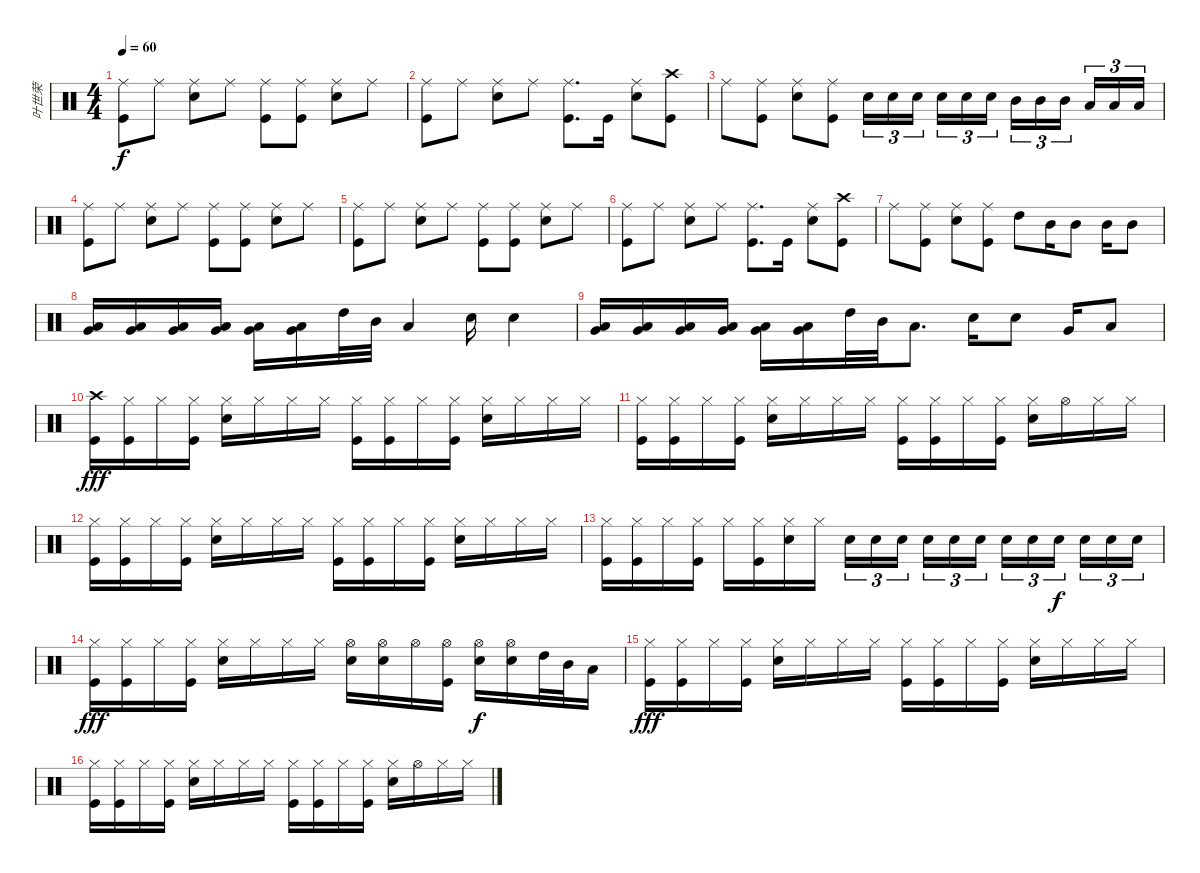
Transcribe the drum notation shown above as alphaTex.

\track ("叶世荣" "叶世荣") {instrument percussion}
\staff {score}
\articulation defaults
\ts (4 4)
\tempo 60
\clef neutral
\ks c
("Ride (middle)" "Kick (hit)").8{dy f} "Ride (middle)".8 ("Ride (middle)" "Snare (hit) 2").8 "Ride (middle)".8 ("Ride (middle)" "Kick (hit)").8 ("Ride (middle)" "Kick (hit)").8 ("Ride (middle)" "Snare (hit) 2").8 "Ride (middle)".8 |
("Ride (middle)" "Kick (hit)").8 "Ride (middle)".8 ("Ride (middle)" "Snare (hit) 2").8 "Ride (middle)".8 ("Ride (middle)" "Kick (hit)").8{d} "Kick (hit)".16 ("Ride (middle)" "Snare (hit) 2").8 ("Crash high (hit)" "Kick (hit)").8 |
"Ride (middle)".8 ("Ride (middle)" "Kick (hit)").8 ("Ride (middle)" "Snare (hit) 2").8 ("Ride (middle)" "Kick (hit)").8 "Snare (hit) 2".16{tu (3 2)} "Snare (hit) 2".16{tu (3 2)} "Snare (hit) 2".16{tu (3 2) beam splitsecondary} "Snare (hit) 2".16{tu (3 2)} "Snare (hit) 2".16{tu (3 2)} "Snare (hit) 2".16{tu (3 2)} "Mid Tom (hit)".16{tu (3 2)} "Mid Tom (hit)".16{tu (3 2)} "Mid Tom (hit)".16{tu (3 2) beam splitsecondary} "Low Tom (hit)".16{tu (3 2)} "Low Tom (hit)".16{tu (3 2)} "Low Tom (hit)".16{tu (3 2)} |
("Ride (middle)" "Kick (hit)").8 "Ride (middle)".8 ("Ride (middle)" "Snare (hit) 2").8 "Ride (middle)".8 ("Ride (middle)" "Kick (hit)").8 ("Ride (middle)" "Kick (hit)").8 ("Ride (middle)" "Snare (hit) 2").8 "Ride (middle)".8 |
("Ride (middle)" "Kick (hit)").8 "Ride (middle)".8 ("Ride (middle)" "Snare (hit) 2").8 "Ride (middle)".8 ("Ride (middle)" "Kick (hit)").8 ("Ride (middle)" "Kick (hit)").8 ("Ride (middle)" "Snare (hit) 2").8 "Ride (middle)".8 |
("Ride (middle)" "Kick (hit)").8 "Ride (middle)".8 ("Ride (middle)" "Snare (hit) 2").8 "Ride (middle)".8 ("Ride (middle)" "Kick (hit)").8{d} "Kick (hit)".16 ("Ride (middle)" "Snare (hit) 2").8 ("Crash high (hit)" "Kick (hit)").8 |
"Ride (middle)".8 ("Ride (middle)" "Kick (hit)").8 ("Ride (middle)" "Snare (hit) 2").8 ("Ride (middle)" "Kick (hit)").8 "High Tom (hit)".8 "Mid Tom (hit)".16 "Mid Tom (hit)".8 "Mid Tom (hit)".16 "Mid Tom (hit)".8 |
("Very Low Tom (hit)" "Low Floor Tom (hit)").16 ("Very Low Tom (hit)" "Low Floor Tom (hit)").16 ("Very Low Tom (hit)" "Low Floor Tom (hit)").16 ("Very Low Tom (hit)" "Low Floor Tom (hit)").16 ("Very Low Tom (hit)" "Low Floor Tom (hit)").16 ("Very Low Tom (hit)" "Low Floor Tom (hit)").16 "High Tom (hit)".32 "Mid Tom (hit)".32 "Low Tom (hit)".4 "Snare (hit) 2".16 "Snare (hit) 2".4 |
("Very Low Tom (hit)" "Low Floor Tom (hit)").16 ("Very Low Tom (hit)" "Low Floor Tom (hit)").16 ("Very Low Tom (hit)" "Low Floor Tom (hit)").16 ("Very Low Tom (hit)" "Low Floor Tom (hit)").16 ("Very Low Tom (hit)" "Low Floor Tom (hit)").16 ("Very Low Tom (hit)" "Low Floor Tom (hit)").16 "High Tom (hit)".32 "Mid Tom (hit)".32 "Low Tom (hit)".8{d} "Snare (hit) 2".16 "Snare (hit) 2".8 "Very Low Tom (hit)".16 "Low Floor Tom (hit)".8 |
("Crash high (hit)" "Kick (hit)").16{dy fff} ("Hi-Hat (closed)" "Kick (hit)").16 "Hi-Hat (closed)".16 ("Hi-Hat (closed)" "Kick (hit)").16 ("Hi-Hat (closed)" "Snare (hit) 2").16 "Hi-Hat (closed)".16 "Hi-Hat (closed)".16 "Hi-Hat (closed)".16 ("Hi-Hat (closed)" "Kick (hit)").16 ("Hi-Hat (closed)" "Kick (hit)").16 "Hi-Hat (closed)".16 ("Hi-Hat (closed)" "Kick (hit)").16 ("Hi-Hat (closed)" "Snare (hit) 2").16 "Hi-Hat (closed)".16 "Hi-Hat (closed)".16 "Hi-Hat (closed)".16 |
("Hi-Hat (closed)" "Kick (hit)").16 ("Hi-Hat (closed)" "Kick (hit)").16 "Hi-Hat (closed)".16 ("Hi-Hat (closed)" "Kick (hit)").16 ("Hi-Hat (closed)" "Snare (hit) 2").16 "Hi-Hat (closed)".16 "Hi-Hat (closed)".16 "Hi-Hat (closed)".16 ("Hi-Hat (closed)" "Kick (hit)").16 ("Hi-Hat (closed)" "Kick (hit)").16 "Hi-Hat (closed)".16 ("Hi-Hat (closed)" "Kick (hit)").16 ("Hi-Hat (closed)" "Snare (hit) 2").16 "Hi-Hat (open)".16 "Hi-Hat (closed)".16 "Hi-Hat (closed)".16 |
("Hi-Hat (closed)" "Kick (hit)").16 ("Hi-Hat (closed)" "Kick (hit)").16 "Hi-Hat (closed)".16 ("Hi-Hat (closed)" "Kick (hit)").16 ("Hi-Hat (closed)" "Snare (hit) 2").16 "Hi-Hat (closed)".16 "Hi-Hat (closed)".16 "Hi-Hat (closed)".16 ("Hi-Hat (closed)" "Kick (hit)").16 ("Hi-Hat (closed)" "Kick (hit)").16 "Hi-Hat (closed)".16 ("Hi-Hat (closed)" "Kick (hit)").16 ("Hi-Hat (closed)" "Snare (hit) 2").16 "Hi-Hat (closed)".16 "Hi-Hat (closed)".16 "Hi-Hat (closed)".16 |
("Hi-Hat (closed)" "Kick (hit)").16 ("Hi-Hat (closed)" "Kick (hit)").16 "Hi-Hat (closed)".16 ("Hi-Hat (closed)" "Kick (hit)").16 "Hi-Hat (closed)".16 ("Hi-Hat (closed)" "Kick (hit)").16 ("Hi-Hat (closed)" "Snare (hit) 2").16 "Hi-Hat (closed)".16 "Snare (hit) 2".16{tu (3 2)} "Snare (hit) 2".16{tu (3 2)} "Snare (hit) 2".16{tu (3 2) beam splitsecondary} "Snare (hit) 2".16{tu (3 2)} "Snare (hit) 2".16{tu (3 2)} "Snare (hit) 2".16{tu (3 2)} "Snare (hit) 2".16{tu (3 2)} "Snare (hit) 2".16{tu (3 2)} "Snare (hit) 2".16{tu (3 2) dy f beam splitsecondary} "Snare (hit) 2".16{tu (3 2)} "Snare (hit) 2".16{tu (3 2)} "Snare (hit) 2".16{tu (3 2)} |
("Hi-Hat (closed)" "Kick (hit)").16{dy fff} ("Hi-Hat (closed)" "Kick (hit)").16 "Hi-Hat (closed)".16 ("Hi-Hat (closed)" "Kick (hit)").16 ("Hi-Hat (closed)" "Snare (hit) 2").16 "Hi-Hat (closed)".16 "Hi-Hat (closed)".16 "Hi-Hat (closed)".16 ("Hi-Hat (open)" "Snare (hit) 2").16 ("Hi-Hat (open)" "Snare (hit) 2").16 "Hi-Hat (open)".16 ("Hi-Hat (open)" "Kick (hit)").16 ("Hi-Hat (open)" "Snare (hit) 2").16{dy f} ("Hi-Hat (open)" "Snare (hit) 2").16 "High Tom (hit)".32 "Mid Tom (hit)".32 "Low Tom (hit)".16 |
("Hi-Hat (closed)" "Kick (hit)").16{dy fff} ("Hi-Hat (closed)" "Kick (hit)").16 "Hi-Hat (closed)".16 ("Hi-Hat (closed)" "Kick (hit)").16 ("Hi-Hat (closed)" "Snare (hit) 2").16 "Hi-Hat (closed)".16 "Hi-Hat (closed)".16 "Hi-Hat (closed)".16 ("Hi-Hat (closed)" "Kick (hit)").16 ("Hi-Hat (closed)" "Kick (hit)").16 "Hi-Hat (closed)".16 ("Hi-Hat (closed)" "Kick (hit)").16 ("Hi-Hat (closed)" "Snare (hit) 2").16 "Hi-Hat (closed)".16 "Hi-Hat (closed)".16 "Hi-Hat (closed)".16 |
("Hi-Hat (closed)" "Kick (hit)").16 ("Hi-Hat (closed)" "Kick (hit)").16 "Hi-Hat (closed)".16 ("Hi-Hat (closed)" "Kick (hit)").16 ("Hi-Hat (closed)" "Snare (hit) 2").16 "Hi-Hat (closed)".16 "Hi-Hat (closed)".16 "Hi-Hat (closed)".16 ("Hi-Hat (closed)" "Kick (hit)").16 ("Hi-Hat (closed)" "Kick (hit)").16 "Hi-Hat (closed)".16 ("Hi-Hat (closed)" "Kick (hit)").16 ("Hi-Hat (closed)" "Snare (hit) 2").16 "Hi-Hat (open)".16 "Hi-Hat (closed)".16 "Hi-Hat (closed)".16
